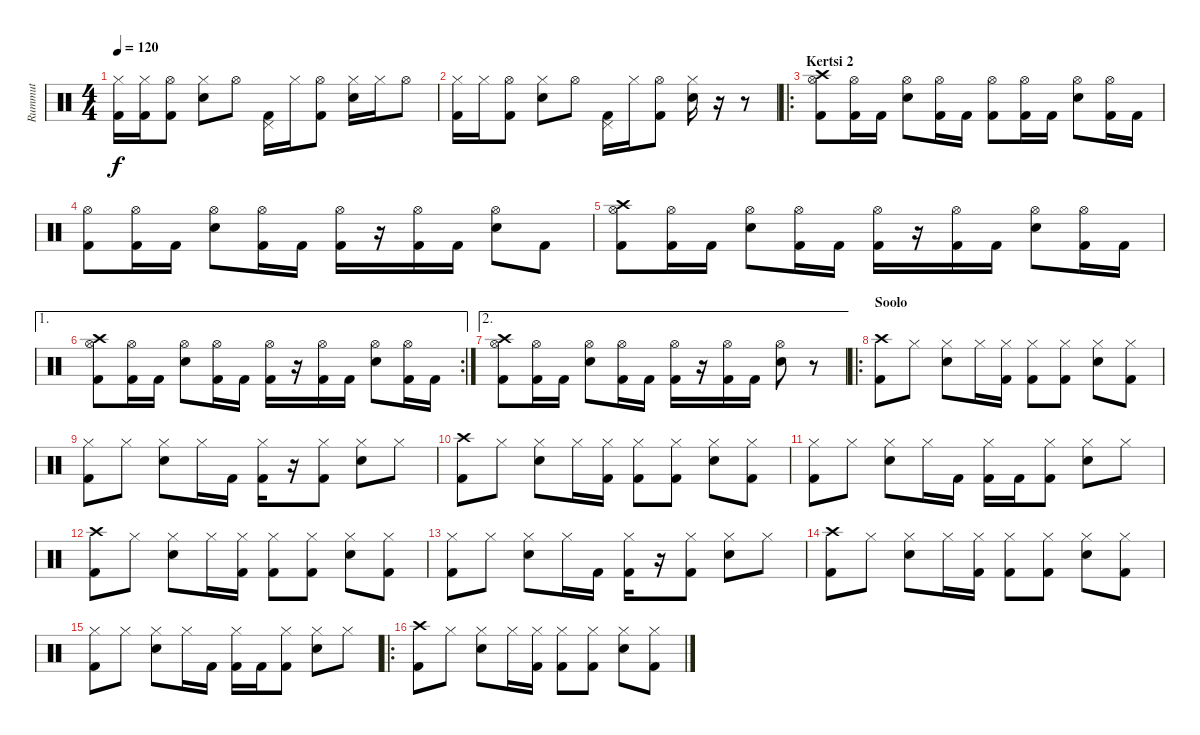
\track ("Rummut" "Rummut") {instrument percussion}
\staff {score}
\articulation defaults
\ts (4 4)
\tempo 120
\clef neutral
\ks c
("Hi-Hat (closed)" "Kick (hit) 2").16{dy f} ("Hi-Hat (closed)" "Kick (hit) 2").16 ("Hi-Hat (open)" "Kick (hit) 2").8 ("Hi-Hat (closed)" "Electric Snare (hit)").8 "Hi-Hat (open)".8 ("Pedal Hi-Hat (hit)" "Kick (hit) 2").16 "Hi-Hat (closed)".16 ("Hi-Hat (open)" "Kick (hit) 2").8 ("Hi-Hat (closed)" "Electric Snare (hit)").16 "Hi-Hat (closed)".16 "Hi-Hat (open)".8 |
("Hi-Hat (closed)" "Kick (hit) 2").16 "Hi-Hat (closed)".16 ("Hi-Hat (open)" "Kick (hit) 2").8 ("Hi-Hat (closed)" "Electric Snare (hit)").8 "Hi-Hat (open)".8 ("Pedal Hi-Hat (hit)" "Kick (hit) 2").16 "Hi-Hat (closed)".16 ("Hi-Hat (open)" "Kick (hit) 2").8 ("Hi-Hat (closed)" "Electric Snare (hit)").16 r.16 r.8 |
\ro
\section ("" "Kertsi 2")
("Crash high (hit)" "Hi-Hat (open)" "Kick (hit) 2").8 ("Hi-Hat (open)" "Kick (hit) 2").16 "Kick (hit) 2".16 ("Hi-Hat (open)" "Electric Snare (hit)").8 ("Hi-Hat (open)" "Kick (hit) 2").16 "Kick (hit) 2".16 ("Hi-Hat (open)" "Kick (hit) 2").8 ("Hi-Hat (open)" "Kick (hit) 2").16 "Kick (hit) 2".16 ("Hi-Hat (open)" "Electric Snare (hit)").8 ("Hi-Hat (open)" "Kick (hit) 2").16 "Kick (hit) 2".16 |
("Hi-Hat (open)" "Kick (hit) 2").8 ("Hi-Hat (open)" "Kick (hit) 2").16 "Kick (hit) 2".16 ("Hi-Hat (open)" "Electric Snare (hit)").8 ("Hi-Hat (open)" "Kick (hit) 2").16 "Kick (hit) 2".16 ("Hi-Hat (open)" "Kick (hit) 2").16 r.16 ("Hi-Hat (open)" "Kick (hit) 2").16 "Kick (hit) 2".16 ("Hi-Hat (open)" "Electric Snare (hit)").8 "Kick (hit) 2".8 |
("Crash high (hit)" "Hi-Hat (open)" "Kick (hit) 2").8 ("Hi-Hat (open)" "Kick (hit) 2").16 "Kick (hit) 2".16 ("Hi-Hat (open)" "Electric Snare (hit)").8 ("Hi-Hat (open)" "Kick (hit) 2").16 "Kick (hit) 2".16 ("Hi-Hat (open)" "Kick (hit) 2").16 r.16 ("Hi-Hat (open)" "Kick (hit) 2").16 "Kick (hit) 2".16 ("Hi-Hat (open)" "Electric Snare (hit)").8 ("Hi-Hat (open)" "Kick (hit) 2").16 "Kick (hit) 2".16 |
\ae 1
\rc 2
("Crash high (hit)" "Hi-Hat (open)" "Kick (hit) 2").8 ("Hi-Hat (open)" "Kick (hit) 2").16 "Kick (hit) 2".16 ("Hi-Hat (open)" "Electric Snare (hit)").8 ("Hi-Hat (open)" "Kick (hit) 2").16 "Kick (hit) 2".16 ("Hi-Hat (open)" "Kick (hit) 2").16 r.16 ("Hi-Hat (open)" "Kick (hit) 2").16 "Kick (hit) 2".16 ("Hi-Hat (open)" "Electric Snare (hit)").8 ("Hi-Hat (open)" "Kick (hit) 2").16 "Kick (hit) 2".16 |
\ae 2
("Crash high (hit)" "Hi-Hat (open)" "Kick (hit) 2").8 ("Hi-Hat (open)" "Kick (hit) 2").16 "Kick (hit) 2".16 ("Hi-Hat (open)" "Electric Snare (hit)").8 ("Hi-Hat (open)" "Kick (hit) 2").16 "Kick (hit) 2".16 ("Hi-Hat (open)" "Kick (hit) 2").16 r.16 ("Hi-Hat (open)" "Kick (hit) 2").16 "Kick (hit) 2".16 ("Hi-Hat (open)" "Electric Snare (hit)").8 r.8 |
\ro
\section ("" "Soolo")
("Crash high (hit)" "Kick (hit) 2").8 "Hi-Hat (closed)".8 ("Hi-Hat (closed)" "Electric Snare (hit)").8 "Hi-Hat (closed)".16 ("Hi-Hat (closed)" "Kick (hit) 2").16 ("Hi-Hat (closed)" "Kick (hit) 2").8 ("Hi-Hat (closed)" "Kick (hit) 2").8 ("Hi-Hat (closed)" "Electric Snare (hit)").8 ("Hi-Hat (closed)" "Kick (hit) 2").8 |
("Hi-Hat (closed)" "Kick (hit) 2").8 "Hi-Hat (closed)".8 ("Hi-Hat (closed)" "Electric Snare (hit)").8 "Hi-Hat (closed)".16 "Kick (hit) 2".16 ("Hi-Hat (closed)" "Kick (hit) 2").16 r.16 ("Hi-Hat (closed)" "Kick (hit) 2").8 ("Hi-Hat (closed)" "Electric Snare (hit)").8 "Hi-Hat (closed)".8 |
("Crash high (hit)" "Kick (hit) 2").8 "Hi-Hat (closed)".8 ("Hi-Hat (closed)" "Electric Snare (hit)").8 "Hi-Hat (closed)".16 ("Hi-Hat (closed)" "Kick (hit) 2").16 ("Hi-Hat (closed)" "Kick (hit) 2").8 ("Hi-Hat (closed)" "Kick (hit) 2").8 ("Hi-Hat (closed)" "Electric Snare (hit)").8 ("Hi-Hat (closed)" "Kick (hit) 2").8 |
("Hi-Hat (closed)" "Kick (hit) 2").8 "Hi-Hat (closed)".8 ("Hi-Hat (closed)" "Electric Snare (hit)").8 "Hi-Hat (closed)".16 "Kick (hit) 2".16 ("Hi-Hat (closed)" "Kick (hit) 2").16 "Kick (hit) 2".16 ("Hi-Hat (closed)" "Kick (hit) 2").8 ("Hi-Hat (closed)" "Electric Snare (hit)").8 "Hi-Hat (closed)".8 |
("Crash high (hit)" "Kick (hit) 2").8 "Hi-Hat (closed)".8 ("Hi-Hat (closed)" "Electric Snare (hit)").8 "Hi-Hat (closed)".16 ("Hi-Hat (closed)" "Kick (hit) 2").16 ("Hi-Hat (closed)" "Kick (hit) 2").8 ("Hi-Hat (closed)" "Kick (hit) 2").8 ("Hi-Hat (closed)" "Electric Snare (hit)").8 ("Hi-Hat (closed)" "Kick (hit) 2").8 |
("Hi-Hat (closed)" "Kick (hit) 2").8 "Hi-Hat (closed)".8 ("Hi-Hat (closed)" "Electric Snare (hit)").8 "Hi-Hat (closed)".16 "Kick (hit) 2".16 ("Hi-Hat (closed)" "Kick (hit) 2").16 r.16 ("Hi-Hat (closed)" "Kick (hit) 2").8 ("Hi-Hat (closed)" "Electric Snare (hit)").8 "Hi-Hat (closed)".8 |
("Crash high (hit)" "Kick (hit) 2").8 "Hi-Hat (closed)".8 ("Hi-Hat (closed)" "Electric Snare (hit)").8 "Hi-Hat (closed)".16 ("Hi-Hat (closed)" "Kick (hit) 2").16 ("Hi-Hat (closed)" "Kick (hit) 2").8 ("Hi-Hat (closed)" "Kick (hit) 2").8 ("Hi-Hat (closed)" "Electric Snare (hit)").8 ("Hi-Hat (closed)" "Kick (hit) 2").8 |
("Hi-Hat (closed)" "Kick (hit) 2").8 "Hi-Hat (closed)".8 ("Hi-Hat (closed)" "Electric Snare (hit)").8 "Hi-Hat (closed)".16 "Kick (hit) 2".16 ("Hi-Hat (closed)" "Kick (hit) 2").16 "Kick (hit) 2".16 ("Hi-Hat (closed)" "Kick (hit) 2").8 ("Hi-Hat (closed)" "Electric Snare (hit)").8 "Hi-Hat (closed)".8 |
\ro
("Crash high (hit)" "Kick (hit) 2").8 "Hi-Hat (closed)".8 ("Hi-Hat (closed)" "Electric Snare (hit)").8 "Hi-Hat (closed)".16 ("Hi-Hat (closed)" "Kick (hit) 2").16 ("Hi-Hat (closed)" "Kick (hit) 2").8 ("Hi-Hat (closed)" "Kick (hit) 2").8 ("Hi-Hat (closed)" "Electric Snare (hit)").8 ("Hi-Hat (closed)" "Kick (hit) 2").8
